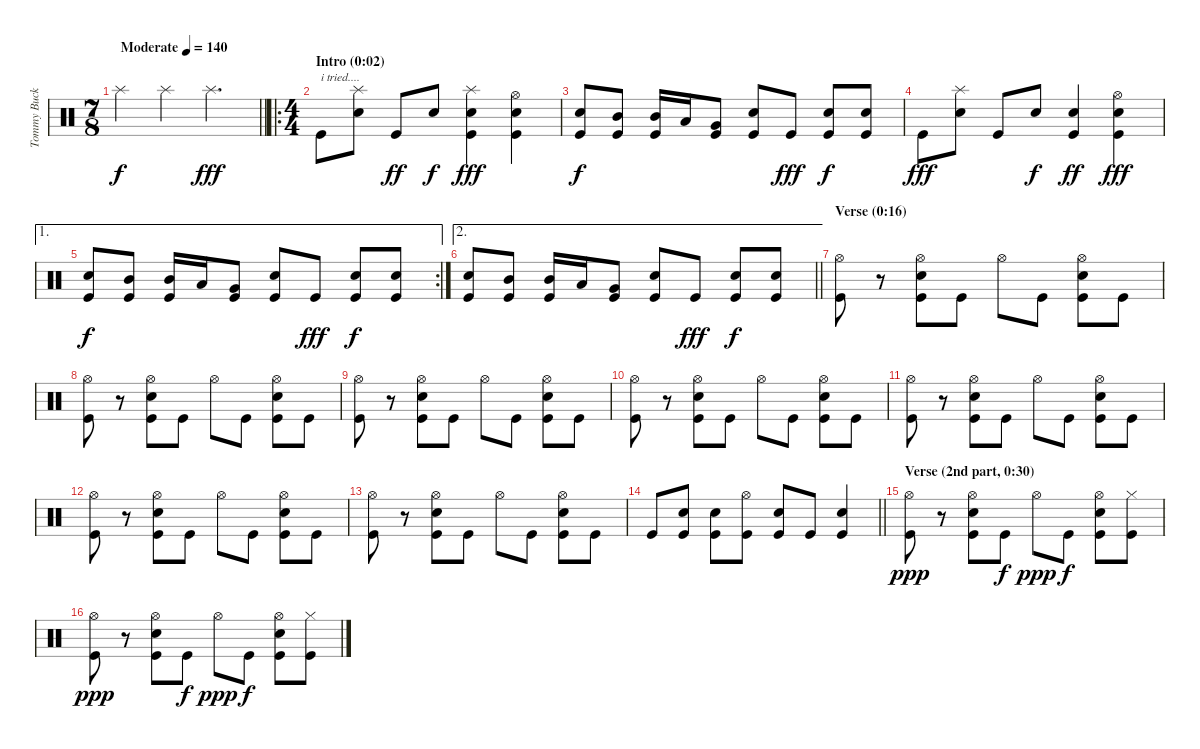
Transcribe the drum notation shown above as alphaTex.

\track ("Tommy Buckly (drums)" "Tommy Buck") {instrument percussion}
\staff {score}
\articulation defaults
\ts (7 8)
\tempo (140 "Moderate")
\clef neutral
\barLineRight lightlight
\ks c "Splash (hit)".4{dy f} "Splash (hit)".4 "Splash (hit)".4{d dy fff}
|
\ro
\ts (4 4)
\section ("" "Intro (0:02)")
"Kick (hit)".8{txt "i tried...."} ("Splash (hit)" "Electric Snare (hit)").8 "Kick (hit)".8{dy ff} "Electric Snare (hit)".8{dy f} ("Splash (hit)" "Electric Snare (hit)" "Kick (hit)").4{dy fff} ("Hi-Hat (open)" "Electric Snare (hit)" "Kick (hit)").4 |
("Electric Snare (hit)" "Kick (hit)").8{dy f} ("Mid Tom (hit)" "Kick (hit)").8 ("Mid Tom (hit)" "Kick (hit)").16 "Low Tom (hit)".16 ("Very Low Tom (hit)" "Kick (hit)").8 ("Electric Snare (hit)" "Kick (hit)").8 "Kick (hit)".8{dy fff} ("Electric Snare (hit)" "Kick (hit)").8{bd 480 dy f} ("Electric Snare (hit)" "Kick (hit)").8 |
"Kick (hit)".8{dy fff} ("Splash (hit)" "Electric Snare (hit)").8 "Kick (hit)".8 "Electric Snare (hit)".8{dy f} ("Electric Snare (hit)" "Kick (hit)").4{dy ff} ("Hi-Hat (open)" "Electric Snare (hit)" "Kick (hit)").4{dy fff} |
\ae 1
\rc 2
("Electric Snare (hit)" "Kick (hit)").8{dy f} ("Mid Tom (hit)" "Kick (hit)").8 ("Mid Tom (hit)" "Kick (hit)").16 "Low Tom (hit)".16 ("Very Low Tom (hit)" "Kick (hit)").8 ("Electric Snare (hit)" "Kick (hit)").8 "Kick (hit)".8{dy fff} ("Electric Snare (hit)" "Kick (hit)").8{bd 480 dy f} ("Electric Snare (hit)" "Kick (hit)").8 |
\ae 2
\barLineRight lightlight
("Electric Snare (hit)" "Kick (hit)").8 ("Mid Tom (hit)" "Kick (hit)").8 ("Mid Tom (hit)" "Kick (hit)").16 "Low Tom (hit)".16 ("Very Low Tom (hit)" "Kick (hit)").8 ("Electric Snare (hit)" "Kick (hit)").8 "Kick (hit)".8{dy fff} ("Electric Snare (hit)" "Kick (hit)").8{bd 480 dy f} ("Electric Snare (hit)" "Kick (hit)").8 |
\section ("" "Verse (0:16)")
("Hi-Hat (open)" "Kick (hit)").8 r.8 ("Hi-Hat (open)" "Electric Snare (hit)" "Kick (hit)").8 "Kick (hit)".8 "Hi-Hat (open)".8 "Kick (hit)".8 ("Hi-Hat (open)" "Electric Snare (hit)" "Kick (hit)").8 "Kick (hit)".8 |
("Hi-Hat (open)" "Kick (hit)").8 r.8 ("Hi-Hat (open)" "Electric Snare (hit)" "Kick (hit)").8 "Kick (hit)".8 "Hi-Hat (open)".8 "Kick (hit)".8 ("Hi-Hat (open)" "Electric Snare (hit)" "Kick (hit)").8 "Kick (hit)".8 |
("Hi-Hat (open)" "Kick (hit)").8 r.8 ("Hi-Hat (open)" "Electric Snare (hit)" "Kick (hit)").8 "Kick (hit)".8 "Hi-Hat (open)".8 "Kick (hit)".8 ("Hi-Hat (open)" "Electric Snare (hit)" "Kick (hit)").8 "Kick (hit)".8 |
("Hi-Hat (open)" "Kick (hit)").8 r.8 ("Hi-Hat (open)" "Electric Snare (hit)" "Kick (hit)").8 "Kick (hit)".8 "Hi-Hat (open)".8 "Kick (hit)".8 ("Hi-Hat (open)" "Electric Snare (hit)" "Kick (hit)").8 "Kick (hit)".8 |
("Hi-Hat (open)" "Kick (hit)").8 r.8 ("Hi-Hat (open)" "Electric Snare (hit)" "Kick (hit)").8 "Kick (hit)".8 "Hi-Hat (open)".8 "Kick (hit)".8 ("Hi-Hat (open)" "Electric Snare (hit)" "Kick (hit)").8 "Kick (hit)".8 |
("Hi-Hat (open)" "Kick (hit)").8 r.8 ("Hi-Hat (open)" "Electric Snare (hit)" "Kick (hit)").8 "Kick (hit)".8 "Hi-Hat (open)".8 "Kick (hit)".8 ("Hi-Hat (open)" "Electric Snare (hit)" "Kick (hit)").8 "Kick (hit)".8 |
("Hi-Hat (open)" "Kick (hit)").8 r.8 ("Hi-Hat (open)" "Electric Snare (hit)" "Kick (hit)").8 "Kick (hit)".8 "Hi-Hat (open)".8 "Kick (hit)".8 ("Hi-Hat (open)" "Electric Snare (hit)" "Kick (hit)").8 "Kick (hit)".8 |
\barLineRight lightlight "Kick (hit)".8
("Electric Snare (hit)" "Kick (hit)").8 ("Electric Snare (hit)" "Kick (hit)").8 ("Hi-Hat (open)" "Kick (hit)").8 ("Electric Snare (hit)" "Kick (hit)").8 "Kick (hit)".8 ("Electric Snare (hit)" "Kick (hit)").4 |
\section ("" "Verse (2nd part, 0:30)")
("Hi-Hat (open)" "Kick (hit)").8{dy ppp} r.8 ("Hi-Hat (open)" "Electric Snare (hit)" "Kick (hit)").8 "Kick (hit)".8{dy f} "Hi-Hat (open)".8{dy ppp} "Kick (hit)".8{dy f} ("Hi-Hat (open)" "Electric Snare (hit)" "Kick (hit)").8 ("Hi-Hat (closed)" "Kick (hit)").8 |
("Hi-Hat (open)" "Kick (hit)").8{dy ppp} r.8 ("Hi-Hat (open)" "Electric Snare (hit)" "Kick (hit)").8 "Kick (hit)".8{dy f} "Hi-Hat (open)".8{dy ppp} "Kick (hit)".8{dy f} ("Hi-Hat (open)" "Electric Snare (hit)" "Kick (hit)").8 ("Hi-Hat (closed)" "Kick (hit)").8
